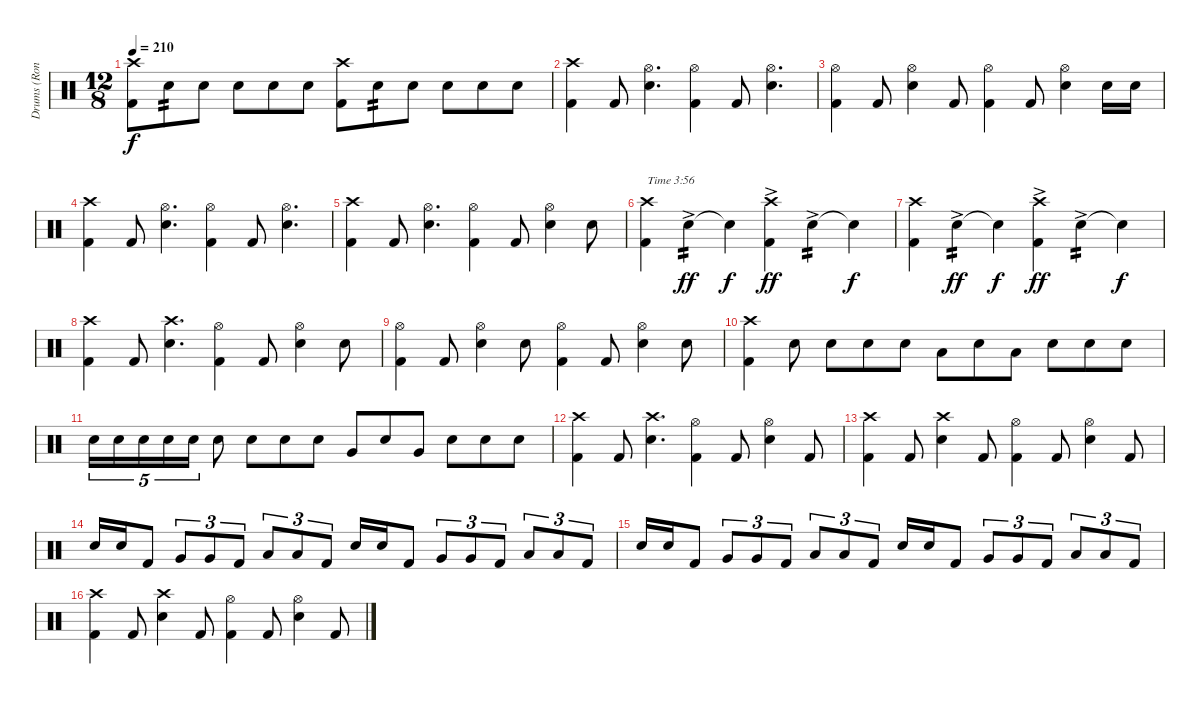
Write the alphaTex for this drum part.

\track ("Drums (Ronny)" "Drums (Ron") {instrument percussion}
\staff {score}
\articulation defaults
\ts (12 8)
\tempo 210
\clef neutral
\ks c
("Crash high (hit)" "Kick (hit) 2").8{dy f} "Snare (hit) 2".8{tp 2} "Snare (hit) 2".8 "Snare (hit) 2".8 "Snare (hit) 2".8 "Snare (hit) 2".8 ("Crash high (hit)" "Kick (hit) 2").8 "Snare (hit) 2".8{tp 2} "Snare (hit) 2".8 "Snare (hit) 2".8 "Snare (hit) 2".8 "Snare (hit) 2".8 |
("Crash high (hit)" "Kick (hit) 2").4 "Kick (hit) 2".8 ("Hi-Hat (open)" "Snare (hit) 2").4{d} ("Hi-Hat (open)" "Kick (hit) 2").4 "Kick (hit) 2".8 ("Hi-Hat (open)" "Snare (hit) 2").4{d} |
("Hi-Hat (open)" "Kick (hit) 2").4 "Kick (hit) 2".8 ("Hi-Hat (open)" "Snare (hit) 2").4 "Kick (hit) 2".8 ("Hi-Hat (open)" "Kick (hit) 2").4 "Kick (hit) 2".8 ("Hi-Hat (open)" "Snare (hit) 2").4 "Snare (hit) 2".16 "Snare (hit) 2".16 |
("Crash high (hit)" "Kick (hit) 2").4 "Kick (hit) 2".8 ("Hi-Hat (open)" "Snare (hit) 2").4{d} ("Hi-Hat (open)" "Kick (hit) 2").4 "Kick (hit) 2".8 ("Hi-Hat (open)" "Snare (hit) 2").4{d} |
("Crash high (hit)" "Kick (hit) 2").4 "Kick (hit) 2".8 ("Hi-Hat (open)" "Snare (hit) 2").4{d} ("Hi-Hat (open)" "Kick (hit) 2").4 "Kick (hit) 2".8 ("Hi-Hat (open)" "Snare (hit) 2").4 "Snare (hit) 2".8 |
("Crash high (hit)" "Kick (hit) 2").4{txt "Time 3:56"} "Snare (hit) 2"{ac}.4{tp 2 dy ff} "Snare (hit) 2"{t}.4{dy f} ("Crash high (hit)" "Kick (hit) 2"{ac}).4{dy ff} "Snare (hit) 2"{ac}.4{tp 2} "Snare (hit) 2"{t}.4{dy f} |
("Crash high (hit)" "Kick (hit) 2").4 "Snare (hit) 2"{ac}.4{tp 2 dy ff} "Snare (hit) 2"{t}.4{dy f} ("Crash high (hit)" "Kick (hit) 2"{ac}).4{dy ff} "Snare (hit) 2"{ac}.4{tp 2} "Snare (hit) 2"{t}.4{dy f} |
("Crash high (hit)" "Kick (hit) 2").4 "Kick (hit) 2".8 ("Crash high (hit)" "Snare (hit) 2").4{d} ("Hi-Hat (open)" "Kick (hit) 2").4 "Kick (hit) 2".8 ("Hi-Hat (open)" "Snare (hit) 2").4 "Snare (hit) 2".8 |
("Hi-Hat (open)" "Kick (hit) 2").4 "Kick (hit) 2".8 ("Hi-Hat (open)" "Snare (hit) 2").4 "Snare (hit) 2".8 ("Hi-Hat (open)" "Kick (hit) 2").4 "Kick (hit) 2".8 ("Hi-Hat (open)" "Snare (hit) 2").4 "Snare (hit) 2".8 |
("Crash high (hit)" "Kick (hit) 2").4 "Snare (hit) 2".8 "Snare (hit) 2".8 "Snare (hit) 2".8 "Snare (hit) 2".8 "Low Floor Tom (hit)".8 "Snare (hit) 2".8 "Low Floor Tom (hit)".8 "Snare (hit) 2".8 "Snare (hit) 2".8 "Snare (hit) 2".8 |
"Snare (hit) 2".16{tu (5 4)} "Snare (hit) 2".16{tu (5 4)} "Snare (hit) 2".16{tu (5 4)} "Snare (hit) 2".16{tu (5 4)} "Snare (hit) 2".16{tu (5 4)} "Snare (hit) 2".8 "Snare (hit) 2".8 "Snare (hit) 2".8 "Snare (hit) 2".8 "Very Low Tom (hit)".8 "Snare (hit) 2".8 "Very Low Tom (hit)".8 "Snare (hit) 2".8 "Snare (hit) 2".8 "Snare (hit) 2".8 |
("Crash high (hit)" "Kick (hit) 2").4 "Kick (hit) 2".8 ("Crash high (hit)" "Snare (hit) 2").4{d} ("Hi-Hat (open)" "Kick (hit) 2").4 "Kick (hit) 2".8 ("Hi-Hat (open)" "Snare (hit) 2").4 "Kick (hit) 2".8 |
("Crash high (hit)" "Kick (hit) 2").4 "Kick (hit) 2".8 ("Crash high (hit)" "Snare (hit) 2").4 "Kick (hit) 2".8 ("Hi-Hat (open)" "Kick (hit) 2").4 "Kick (hit) 2".8 ("Hi-Hat (open)" "Snare (hit) 2").4 "Kick (hit) 2".8 |
"Snare (hit) 2".16 "Snare (hit) 2".16 "Kick (hit) 2".8 "Very Low Tom (hit)".8{tu (3 2)} "Very Low Tom (hit)".8{tu (3 2)} "Kick (hit) 2".8{tu (3 2)} "Low Floor Tom (hit)".8{tu (3 2)} "Low Floor Tom (hit)".8{tu (3 2)} "Kick (hit) 2".8{tu (3 2)} "Snare (hit) 2".16 "Snare (hit) 2".16 "Kick (hit) 2".8 "Very Low Tom (hit)".8{tu (3 2)} "Very Low Tom (hit)".8{tu (3 2)} "Kick (hit) 2".8{tu (3 2)} "Low Floor Tom (hit)".8{tu (3 2)} "Low Floor Tom (hit)".8{tu (3 2)} "Kick (hit) 2".8{tu (3 2)} |
"Snare (hit) 2".16 "Snare (hit) 2".16 "Kick (hit) 2".8 "Very Low Tom (hit)".8{tu (3 2)} "Very Low Tom (hit)".8{tu (3 2)} "Kick (hit) 2".8{tu (3 2)} "Low Floor Tom (hit)".8{tu (3 2)} "Low Floor Tom (hit)".8{tu (3 2)} "Kick (hit) 2".8{tu (3 2)} "Snare (hit) 2".16 "Snare (hit) 2".16 "Kick (hit) 2".8 "Very Low Tom (hit)".8{tu (3 2)} "Very Low Tom (hit)".8{tu (3 2)} "Kick (hit) 2".8{tu (3 2)} "Low Floor Tom (hit)".8{tu (3 2)} "Low Floor Tom (hit)".8{tu (3 2)} "Kick (hit) 2".8{tu (3 2)} |
("Crash high (hit)" "Kick (hit) 2").4 "Kick (hit) 2".8 ("Crash high (hit)" "Snare (hit) 2").4 "Kick (hit) 2".8 ("Hi-Hat (open)" "Kick (hit) 2").4 "Kick (hit) 2".8 ("Hi-Hat (open)" "Snare (hit) 2").4 "Kick (hit) 2".8
